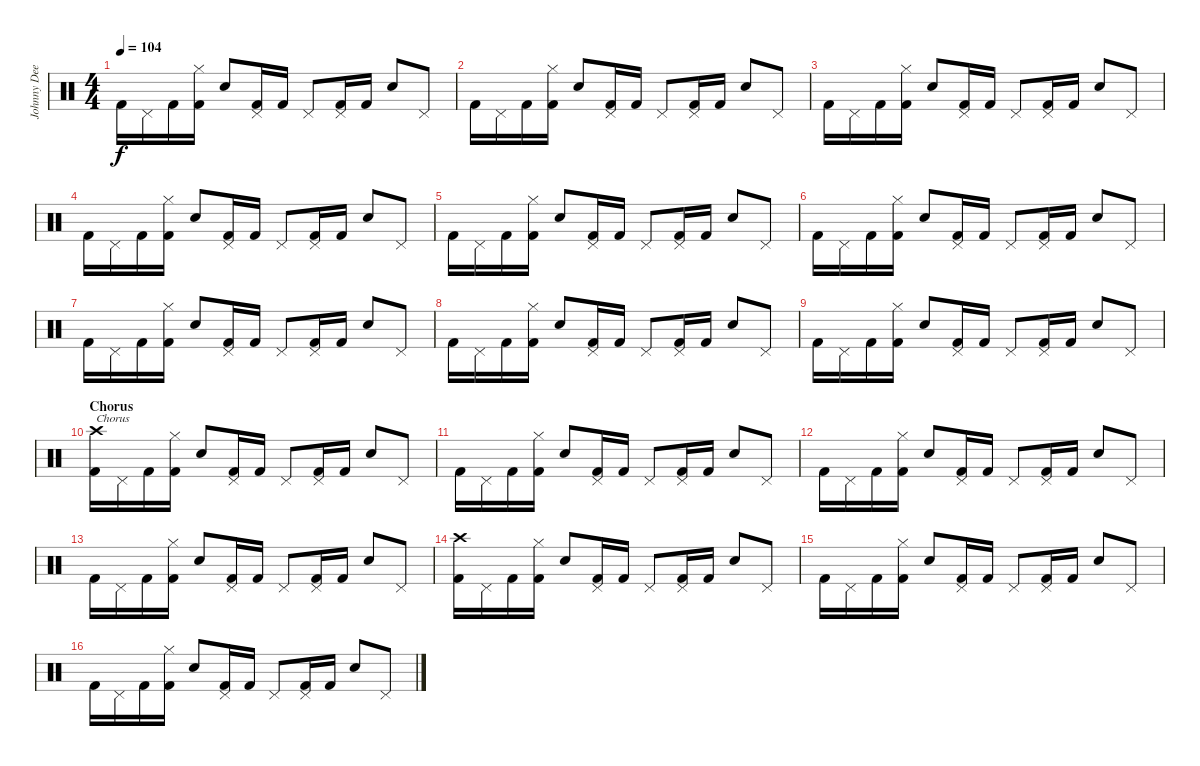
\track ("Johnny Dee" "Johnny Dee") {instrument percussion}
\staff {score}
\articulation defaults
\ts (4 4)
\tempo 104
\clef neutral
\ks c "Kick (hit) 2".16{dy f} "Pedal Hi-Hat (hit)".16 "Kick (hit) 2".16
("Hi-Hat (closed)" "Kick (hit) 2").16 "Snare (hit) 2".8 ("Pedal Hi-Hat (hit)" "Kick (hit) 2").16 "Kick (hit) 2".16 "Pedal Hi-Hat (hit)".8 ("Pedal Hi-Hat (hit)" "Kick (hit) 2").16 "Kick (hit) 2".16 "Snare (hit) 2".8 "Pedal Hi-Hat (hit)".8 |
"Kick (hit) 2".16 "Pedal Hi-Hat (hit)".16 "Kick (hit) 2".16 ("Hi-Hat (closed)" "Kick (hit) 2").16 "Snare (hit) 2".8 ("Pedal Hi-Hat (hit)" "Kick (hit) 2").16 "Kick (hit) 2".16 "Pedal Hi-Hat (hit)".8 ("Pedal Hi-Hat (hit)" "Kick (hit) 2").16 "Kick (hit) 2".16 "Snare (hit) 2".8 "Pedal Hi-Hat (hit)".8 |
"Kick (hit) 2".16 "Pedal Hi-Hat (hit)".16 "Kick (hit) 2".16 ("Hi-Hat (closed)" "Kick (hit) 2").16 "Snare (hit) 2".8 ("Pedal Hi-Hat (hit)" "Kick (hit) 2").16 "Kick (hit) 2".16 "Pedal Hi-Hat (hit)".8 ("Pedal Hi-Hat (hit)" "Kick (hit) 2").16 "Kick (hit) 2".16 "Snare (hit) 2".8 "Pedal Hi-Hat (hit)".8 |
"Kick (hit) 2".16 "Pedal Hi-Hat (hit)".16 "Kick (hit) 2".16 ("Hi-Hat (closed)" "Kick (hit) 2").16 "Snare (hit) 2".8 ("Pedal Hi-Hat (hit)" "Kick (hit) 2").16 "Kick (hit) 2".16 "Pedal Hi-Hat (hit)".8 ("Pedal Hi-Hat (hit)" "Kick (hit) 2").16 "Kick (hit) 2".16 "Snare (hit) 2".8 "Pedal Hi-Hat (hit)".8 |
"Kick (hit) 2".16 "Pedal Hi-Hat (hit)".16 "Kick (hit) 2".16 ("Hi-Hat (closed)" "Kick (hit) 2").16 "Snare (hit) 2".8 ("Pedal Hi-Hat (hit)" "Kick (hit) 2").16 "Kick (hit) 2".16 "Pedal Hi-Hat (hit)".8 ("Pedal Hi-Hat (hit)" "Kick (hit) 2").16 "Kick (hit) 2".16 "Snare (hit) 2".8 "Pedal Hi-Hat (hit)".8 |
"Kick (hit) 2".16 "Pedal Hi-Hat (hit)".16 "Kick (hit) 2".16 ("Hi-Hat (closed)" "Kick (hit) 2").16 "Snare (hit) 2".8 ("Pedal Hi-Hat (hit)" "Kick (hit) 2").16 "Kick (hit) 2".16 "Pedal Hi-Hat (hit)".8 ("Pedal Hi-Hat (hit)" "Kick (hit) 2").16 "Kick (hit) 2".16 "Snare (hit) 2".8 "Pedal Hi-Hat (hit)".8 |
"Kick (hit) 2".16 "Pedal Hi-Hat (hit)".16 "Kick (hit) 2".16 ("Hi-Hat (closed)" "Kick (hit) 2").16 "Snare (hit) 2".8 ("Pedal Hi-Hat (hit)" "Kick (hit) 2").16 "Kick (hit) 2".16 "Pedal Hi-Hat (hit)".8 ("Pedal Hi-Hat (hit)" "Kick (hit) 2").16 "Kick (hit) 2".16 "Snare (hit) 2".8 "Pedal Hi-Hat (hit)".8 |
"Kick (hit) 2".16 "Pedal Hi-Hat (hit)".16 "Kick (hit) 2".16 ("Hi-Hat (closed)" "Kick (hit) 2").16 "Snare (hit) 2".8 ("Pedal Hi-Hat (hit)" "Kick (hit) 2").16 "Kick (hit) 2".16 "Pedal Hi-Hat (hit)".8 ("Pedal Hi-Hat (hit)" "Kick (hit) 2").16 "Kick (hit) 2".16 "Snare (hit) 2".8 "Pedal Hi-Hat (hit)".8 |
"Kick (hit) 2".16 "Pedal Hi-Hat (hit)".16 "Kick (hit) 2".16 ("Hi-Hat (closed)" "Kick (hit) 2").16 "Snare (hit) 2".8 ("Pedal Hi-Hat (hit)" "Kick (hit) 2").16 "Kick (hit) 2".16 "Pedal Hi-Hat (hit)".8 ("Pedal Hi-Hat (hit)" "Kick (hit) 2").16 "Kick (hit) 2".16 "Snare (hit) 2".8 "Pedal Hi-Hat (hit)".8 |
\section ("" "Chorus")
("Crash high (hit)" "Kick (hit) 2").16{txt "Chorus"} "Pedal Hi-Hat (hit)".16 "Kick (hit) 2".16 ("Hi-Hat (closed)" "Kick (hit) 2").16 "Snare (hit) 2".8 ("Pedal Hi-Hat (hit)" "Kick (hit) 2").16 "Kick (hit) 2".16 "Pedal Hi-Hat (hit)".8 ("Pedal Hi-Hat (hit)" "Kick (hit) 2").16 "Kick (hit) 2".16 "Snare (hit) 2".8 "Pedal Hi-Hat (hit)".8 |
"Kick (hit) 2".16 "Pedal Hi-Hat (hit)".16 "Kick (hit) 2".16 ("Hi-Hat (closed)" "Kick (hit) 2").16 "Snare (hit) 2".8 ("Pedal Hi-Hat (hit)" "Kick (hit) 2").16 "Kick (hit) 2".16 "Pedal Hi-Hat (hit)".8 ("Pedal Hi-Hat (hit)" "Kick (hit) 2").16 "Kick (hit) 2".16 "Snare (hit) 2".8 "Pedal Hi-Hat (hit)".8 |
"Kick (hit) 2".16 "Pedal Hi-Hat (hit)".16 "Kick (hit) 2".16 ("Hi-Hat (closed)" "Kick (hit) 2").16 "Snare (hit) 2".8 ("Pedal Hi-Hat (hit)" "Kick (hit) 2").16 "Kick (hit) 2".16 "Pedal Hi-Hat (hit)".8 ("Pedal Hi-Hat (hit)" "Kick (hit) 2").16 "Kick (hit) 2".16 "Snare (hit) 2".8 "Pedal Hi-Hat (hit)".8 |
"Kick (hit) 2".16 "Pedal Hi-Hat (hit)".16 "Kick (hit) 2".16 ("Hi-Hat (closed)" "Kick (hit) 2").16 "Snare (hit) 2".8 ("Pedal Hi-Hat (hit)" "Kick (hit) 2").16 "Kick (hit) 2".16 "Pedal Hi-Hat (hit)".8 ("Pedal Hi-Hat (hit)" "Kick (hit) 2").16 "Kick (hit) 2".16 "Snare (hit) 2".8 "Pedal Hi-Hat (hit)".8 |
("Crash high (hit)" "Kick (hit) 2").16 "Pedal Hi-Hat (hit)".16 "Kick (hit) 2".16 ("Hi-Hat (closed)" "Kick (hit) 2").16 "Snare (hit) 2".8 ("Pedal Hi-Hat (hit)" "Kick (hit) 2").16 "Kick (hit) 2".16 "Pedal Hi-Hat (hit)".8 ("Pedal Hi-Hat (hit)" "Kick (hit) 2").16 "Kick (hit) 2".16 "Snare (hit) 2".8 "Pedal Hi-Hat (hit)".8 |
"Kick (hit) 2".16 "Pedal Hi-Hat (hit)".16 "Kick (hit) 2".16 ("Hi-Hat (closed)" "Kick (hit) 2").16 "Snare (hit) 2".8 ("Pedal Hi-Hat (hit)" "Kick (hit) 2").16 "Kick (hit) 2".16 "Pedal Hi-Hat (hit)".8 ("Pedal Hi-Hat (hit)" "Kick (hit) 2").16 "Kick (hit) 2".16 "Snare (hit) 2".8 "Pedal Hi-Hat (hit)".8 |
"Kick (hit) 2".16 "Pedal Hi-Hat (hit)".16 "Kick (hit) 2".16 ("Hi-Hat (closed)" "Kick (hit) 2").16 "Snare (hit) 2".8 ("Pedal Hi-Hat (hit)" "Kick (hit) 2").16 "Kick (hit) 2".16 "Pedal Hi-Hat (hit)".8 ("Pedal Hi-Hat (hit)" "Kick (hit) 2").16 "Kick (hit) 2".16 "Snare (hit) 2".8 "Pedal Hi-Hat (hit)".8
